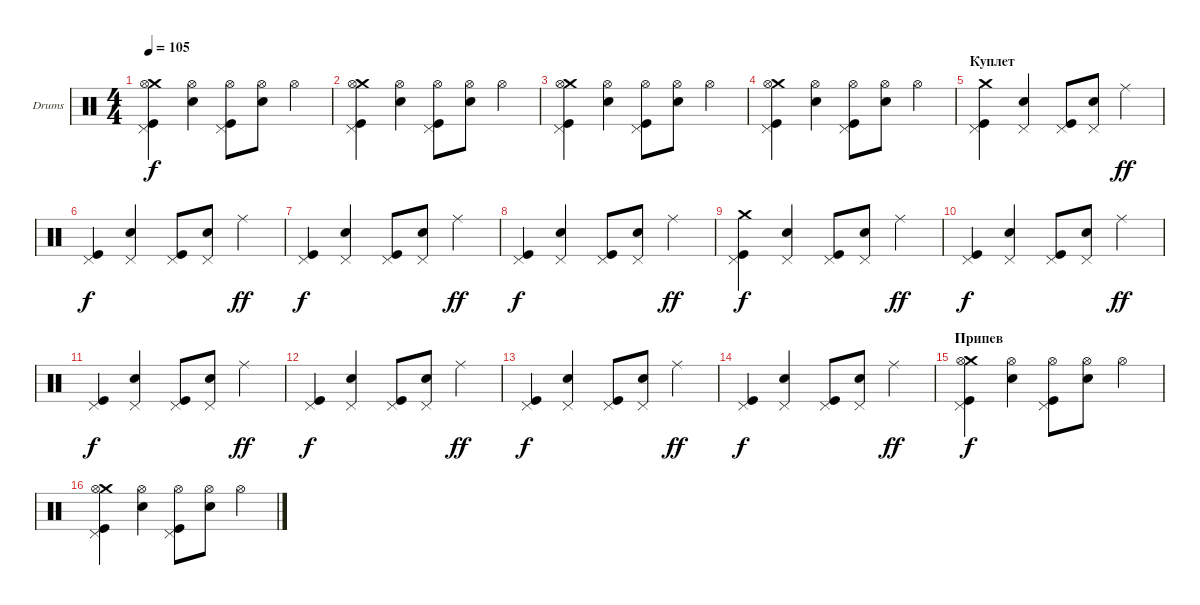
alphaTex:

\defaultSystemsLayout 4
\bracketExtendMode groupsimilarinstruments
\firstSystemTrackNameOrientation horizontal
\otherSystemsTrackNameOrientation horizontal
\track ("Е. Кулаков" "Drums") {instrument percussion}
\staff {score}
\articulation defaults
\ts (4 4)
\tempo 105
\clef neutral
\ks c
("Crash medium (hit)" "Pedal Hi-Hat (hit)" "Kick (hit)" "Hi-Hat (open)").4{dy f} ("Snare (hit) 2" "Hi-Hat (open)").4 ("Pedal Hi-Hat (hit)" "Kick (hit)" "Hi-Hat (open)").8 ("Snare (hit) 2" "Hi-Hat (open)").8 "Hi-Hat (open)".4 |
("Crash medium (hit)" "Pedal Hi-Hat (hit)" "Kick (hit)" "Hi-Hat (open)").4 ("Snare (hit) 2" "Hi-Hat (open)").4 ("Pedal Hi-Hat (hit)" "Kick (hit)" "Hi-Hat (open)").8 ("Snare (hit) 2" "Hi-Hat (open)").8 "Hi-Hat (open)".4 |
("Crash medium (hit)" "Pedal Hi-Hat (hit)" "Kick (hit)" "Hi-Hat (open)").4 ("Snare (hit) 2" "Hi-Hat (open)").4 ("Pedal Hi-Hat (hit)" "Kick (hit)" "Hi-Hat (open)").8 ("Snare (hit) 2" "Hi-Hat (open)").8 "Hi-Hat (open)".4 |
("Crash medium (hit)" "Pedal Hi-Hat (hit)" "Kick (hit)" "Hi-Hat (open)").4 ("Snare (hit) 2" "Hi-Hat (open)").4 ("Pedal Hi-Hat (hit)" "Kick (hit)" "Hi-Hat (open)").8 ("Snare (hit) 2" "Hi-Hat (open)").8 "Hi-Hat (open)".4 |
\section ("" "Куплет")
("Crash medium (hit)" "Pedal Hi-Hat (hit)" "Kick (hit)").4 ("Snare (hit) 2" "Pedal Hi-Hat (hit)").4 ("Pedal Hi-Hat (hit)" "Kick (hit)").8 ("Snare (hit) 2" "Pedal Hi-Hat (hit)").8 "Ride (middle)".4{dy ff} |
("Pedal Hi-Hat (hit)" "Kick (hit)").4{dy f} ("Snare (hit) 2" "Pedal Hi-Hat (hit)").4 ("Pedal Hi-Hat (hit)" "Kick (hit)").8 ("Snare (hit) 2" "Pedal Hi-Hat (hit)").8 "Ride (middle)".4{dy ff} |
("Pedal Hi-Hat (hit)" "Kick (hit)").4{dy f} ("Snare (hit) 2" "Pedal Hi-Hat (hit)").4 ("Pedal Hi-Hat (hit)" "Kick (hit)").8 ("Snare (hit) 2" "Pedal Hi-Hat (hit)").8 "Ride (middle)".4{dy ff} |
("Pedal Hi-Hat (hit)" "Kick (hit)").4{dy f} ("Snare (hit) 2" "Pedal Hi-Hat (hit)").4 ("Pedal Hi-Hat (hit)" "Kick (hit)").8 ("Snare (hit) 2" "Pedal Hi-Hat (hit)").8 "Ride (middle)".4{dy ff} |
("Crash medium (hit)" "Pedal Hi-Hat (hit)" "Kick (hit)").4{dy f} ("Snare (hit) 2" "Pedal Hi-Hat (hit)").4 ("Pedal Hi-Hat (hit)" "Kick (hit)").8 ("Snare (hit) 2" "Pedal Hi-Hat (hit)").8 "Ride (middle)".4{dy ff} |
("Pedal Hi-Hat (hit)" "Kick (hit)").4{dy f} ("Snare (hit) 2" "Pedal Hi-Hat (hit)").4 ("Pedal Hi-Hat (hit)" "Kick (hit)").8 ("Snare (hit) 2" "Pedal Hi-Hat (hit)").8 "Ride (middle)".4{dy ff} |
("Pedal Hi-Hat (hit)" "Kick (hit)").4{dy f} ("Snare (hit) 2" "Pedal Hi-Hat (hit)").4 ("Pedal Hi-Hat (hit)" "Kick (hit)").8 ("Snare (hit) 2" "Pedal Hi-Hat (hit)").8 "Ride (middle)".4{dy ff} |
("Pedal Hi-Hat (hit)" "Kick (hit)").4{dy f} ("Snare (hit) 2" "Pedal Hi-Hat (hit)").4 ("Pedal Hi-Hat (hit)" "Kick (hit)").8 ("Snare (hit) 2" "Pedal Hi-Hat (hit)").8 "Ride (middle)".4{dy ff} |
("Pedal Hi-Hat (hit)" "Kick (hit)").4{dy f} ("Snare (hit) 2" "Pedal Hi-Hat (hit)").4 ("Pedal Hi-Hat (hit)" "Kick (hit)").8 ("Snare (hit) 2" "Pedal Hi-Hat (hit)").8 "Ride (middle)".4{dy ff} |
("Pedal Hi-Hat (hit)" "Kick (hit)").4{dy f} ("Snare (hit) 2" "Pedal Hi-Hat (hit)").4 ("Pedal Hi-Hat (hit)" "Kick (hit)").8 ("Snare (hit) 2" "Pedal Hi-Hat (hit)").8 "Ride (middle)".4{dy ff} |
\section ("" "Припев")
("Crash medium (hit)" "Pedal Hi-Hat (hit)" "Kick (hit)" "Hi-Hat (open)").4{dy f} ("Snare (hit) 2" "Hi-Hat (open)").4 ("Pedal Hi-Hat (hit)" "Kick (hit)" "Hi-Hat (open)").8 ("Snare (hit) 2" "Hi-Hat (open)").8 "Hi-Hat (open)".4 |
("Crash medium (hit)" "Pedal Hi-Hat (hit)" "Kick (hit)" "Hi-Hat (open)").4 ("Snare (hit) 2" "Hi-Hat (open)").4 ("Pedal Hi-Hat (hit)" "Kick (hit)" "Hi-Hat (open)").8 ("Snare (hit) 2" "Hi-Hat (open)").8 "Hi-Hat (open)".4
